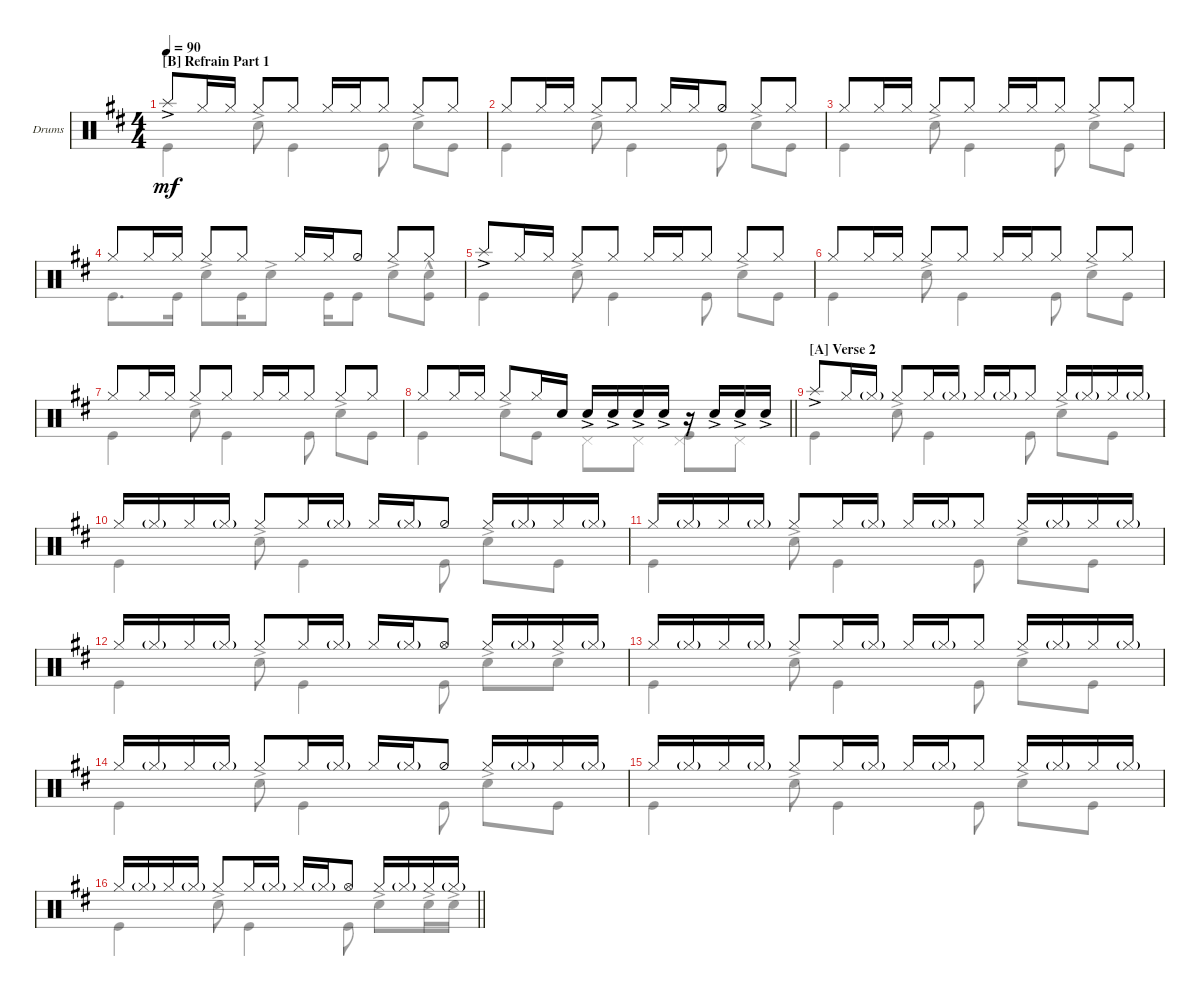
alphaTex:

\defaultSystemsLayout 4
\bracketExtendMode groupsimilarinstruments
\firstSystemTrackNameOrientation horizontal
\otherSystemsTrackNameOrientation horizontal
\track ("Drumkit" "Drums") {instrument percussion}
\staff {score}
\articulation defaults
\voice
\ts (4 4)
\section ("B" "Refrain Part 1")
\tempo 90
\clef neutral
\scale
0.5
\ks d "Splash (hit)"{ac}.8{dy mf} "Hi-Hat (closed)".16 "Hi-Hat (closed)".16 "Hi-Hat (closed)".8 "Hi-Hat (closed)".8 "Hi-Hat (closed)".16 "Hi-Hat (closed)".16 "Hi-Hat (closed)".8 "Hi-Hat (closed)".8 "Hi-Hat (closed)".8
|
\scale
0.5 "Hi-Hat (closed)".8 "Hi-Hat (closed)".16 "Hi-Hat (closed)".16 "Hi-Hat (closed)".8 "Hi-Hat (closed)".8 "Hi-Hat (closed)".16 "Hi-Hat (closed)".16 "Hi-Hat (half)".8 "Hi-Hat (closed)".8 "Hi-Hat (closed)".8 |
\scale
0.5 "Hi-Hat (closed)".8 "Hi-Hat (closed)".16 "Hi-Hat (closed)".16 "Hi-Hat (closed)".8 "Hi-Hat (closed)".8 "Hi-Hat (closed)".16 "Hi-Hat (closed)".16 "Hi-Hat (closed)".8 "Hi-Hat (closed)".8 "Hi-Hat (closed)".8 |
\scale
0.5 "Hi-Hat (closed)".8 "Hi-Hat (closed)".16 "Hi-Hat (closed)".16 "Hi-Hat (closed)".8 "Hi-Hat (closed)".8 "Hi-Hat (closed)".16 "Hi-Hat (closed)".16 "Hi-Hat (half)".8 "Hi-Hat (closed)".8 "Hi-Hat (closed)".8 |
\scale
0.5 "Splash (hit)"{ac}.8 "Hi-Hat (closed)".16 "Hi-Hat (closed)".16 "Hi-Hat (closed)".8 "Hi-Hat (closed)".8 "Hi-Hat (closed)".16 "Hi-Hat (closed)".16 "Hi-Hat (closed)".8 "Hi-Hat (closed)".8 "Hi-Hat (closed)".8 |
\scale
0.5 "Hi-Hat (closed)".8 "Hi-Hat (closed)".16 "Hi-Hat (closed)".16 "Hi-Hat (closed)".8 "Hi-Hat (closed)".8 "Hi-Hat (closed)".16 "Hi-Hat (closed)".16 "Hi-Hat (closed)".8 "Hi-Hat (closed)".8 "Hi-Hat (closed)".8 |
\scale
0.5 "Hi-Hat (closed)".8 "Hi-Hat (closed)".16 "Hi-Hat (closed)".16 "Hi-Hat (closed)".8 "Hi-Hat (closed)".8 "Hi-Hat (closed)".16 "Hi-Hat (closed)".16 "Hi-Hat (closed)".8 "Hi-Hat (closed)".8 "Hi-Hat (closed)".8 |
\scale
0.5
\barLineRight lightlight "Hi-Hat (closed)".8 "Hi-Hat (closed)".16 "Hi-Hat (closed)".16 "Hi-Hat (closed)".8 "Hi-Hat (closed)".16 "Snare (hit) 2".16 "Snare (hit) 2"{ac}.16 "Snare (hit) 2"{ac}.16 "Snare (hit) 2"{ac}.16 "Snare (hit) 2"{ac}.16
r.16 "Snare (hit) 2"{ac}.16 "Snare (hit) 2"{ac}.16 "Snare (hit) 2"{ac}.16 |
\section ("A" "Verse 2")
\scale
0.5 "Splash (hit)"{ac}.8 "Hi-Hat (closed)".16 "Hi-Hat (closed)"{g}.16 "Hi-Hat (closed)".8 "Hi-Hat (closed)".16 "Hi-Hat (closed)"{g}.16 "Hi-Hat (closed)".16 "Hi-Hat (closed)"{g}.16 "Hi-Hat (closed)".8 "Hi-Hat (closed)".16 "Hi-Hat (closed)"{g}.16 "Hi-Hat (closed)".16 "Hi-Hat (closed)"{g}.16 |
\scale
0.5 "Hi-Hat (closed)".16 "Hi-Hat (closed)"{g}.16 "Hi-Hat (closed)".16 "Hi-Hat (closed)"{g}.16 "Hi-Hat (closed)".8 "Hi-Hat (closed)".16 "Hi-Hat (closed)"{g}.16 "Hi-Hat (closed)".16 "Hi-Hat (closed)"{g}.16 "Hi-Hat (half)".8 "Hi-Hat (closed)".16 "Hi-Hat (closed)"{g}.16 "Hi-Hat (closed)".16 "Hi-Hat (closed)"{g}.16 |
\scale
0.5 "Hi-Hat (closed)".16 "Hi-Hat (closed)"{g}.16 "Hi-Hat (closed)".16 "Hi-Hat (closed)"{g}.16 "Hi-Hat (closed)".8 "Hi-Hat (closed)".16 "Hi-Hat (closed)"{g}.16 "Hi-Hat (closed)".16 "Hi-Hat (closed)"{g}.16 "Hi-Hat (closed)".8 "Hi-Hat (closed)".16 "Hi-Hat (closed)"{g}.16 "Hi-Hat (closed)".16 "Hi-Hat (closed)"{g}.16 |
\scale
0.5 "Hi-Hat (closed)".16 "Hi-Hat (closed)"{g}.16 "Hi-Hat (closed)".16 "Hi-Hat (closed)"{g}.16 "Hi-Hat (closed)".8 "Hi-Hat (closed)".16 "Hi-Hat (closed)"{g}.16 "Hi-Hat (closed)".16 "Hi-Hat (closed)"{g}.16 "Hi-Hat (open)".8 "Hi-Hat (closed)".16 "Hi-Hat (closed)"{g}.16 "Hi-Hat (closed)".16 "Hi-Hat (closed)"{g}.16 |
\scale
0.5 "Hi-Hat (closed)".16 "Hi-Hat (closed)"{g}.16 "Hi-Hat (closed)".16 "Hi-Hat (closed)"{g}.16 "Hi-Hat (closed)".8 "Hi-Hat (closed)".16 "Hi-Hat (closed)"{g}.16 "Hi-Hat (closed)".16 "Hi-Hat (closed)"{g}.16 "Hi-Hat (closed)".8 "Hi-Hat (closed)".16 "Hi-Hat (closed)"{g}.16 "Hi-Hat (closed)".16 "Hi-Hat (closed)"{g}.16 |
\scale
0.5 "Hi-Hat (closed)".16 "Hi-Hat (closed)"{g}.16 "Hi-Hat (closed)".16 "Hi-Hat (closed)"{g}.16 "Hi-Hat (closed)".8 "Hi-Hat (closed)".16 "Hi-Hat (closed)"{g}.16 "Hi-Hat (closed)".16 "Hi-Hat (closed)"{g}.16 "Hi-Hat (half)".8 "Hi-Hat (closed)".16 "Hi-Hat (closed)"{g}.16 "Hi-Hat (closed)".16 "Hi-Hat (closed)"{g}.16 |
\scale
0.5 "Hi-Hat (closed)".16 "Hi-Hat (closed)"{g}.16 "Hi-Hat (closed)".16 "Hi-Hat (closed)"{g}.16 "Hi-Hat (closed)".8 "Hi-Hat (closed)".16 "Hi-Hat (closed)"{g}.16 "Hi-Hat (closed)".16 "Hi-Hat (closed)"{g}.16 "Hi-Hat (closed)".8 "Hi-Hat (closed)".16 "Hi-Hat (closed)"{g}.16 "Hi-Hat (closed)".16 "Hi-Hat (closed)"{g}.16 |
\scale
0.5
\barLineRight lightlight "Hi-Hat (closed)".16 "Hi-Hat (closed)"{g}.16 "Hi-Hat (closed)".16 "Hi-Hat (closed)"{g}.16 "Hi-Hat (closed)".8 "Hi-Hat (closed)".16 "Hi-Hat (closed)"{g}.16 "Hi-Hat (closed)".16 "Hi-Hat (closed)"{g}.16 "Hi-Hat (open)".8 "Hi-Hat (closed)".16 "Hi-Hat (closed)"{g}.16 "Hi-Hat (closed)".16 "Hi-Hat (closed)"{g}.16
\voice
\clef neutral
\ottava regular
\simile none
\scale
0.5
\ks d "Kick (hit)".4{dy mf} "Snare (hit) 2"{ac}.8 "Kick (hit)".4 "Kick (hit)".8 "Snare (hit) 2"{ac}.8 "Kick (hit)".8
|
\scale
0.5 "Kick (hit)".4 "Snare (hit) 2"{ac}.8 "Kick (hit)".4 "Kick (hit)".8 "Snare (hit) 2"{ac}.8 "Kick (hit)".8 |
\scale
0.5 "Kick (hit)".4 "Snare (hit) 2"{ac}.8 "Kick (hit)".4 "Kick (hit)".8 "Snare (hit) 2"{ac}.8 "Kick (hit)".8 |
\scale
0.5 "Kick (hit)".8{d} "Kick (hit)".16 "Snare (hit) 2"{ac}.8 "Kick (hit)".16 "Snare (hit) 2"{ac}.8 "Kick (hit)".16 "Kick (hit)".8 "Snare (hit) 2"{ac}.8 ("Kick (hit)" "Snare (hit) 2"{hac}).8 |
\scale
0.5 "Kick (hit)".4 "Snare (hit) 2"{ac}.8 "Kick (hit)".4 "Kick (hit)".8 "Snare (hit) 2"{ac}.8 "Kick (hit)".8 |
\scale
0.5 "Kick (hit)".4 "Snare (hit) 2"{ac}.8 "Kick (hit)".4 "Kick (hit)".8 "Snare (hit) 2"{ac}.8 "Kick (hit)".8 |
\scale
0.5 "Kick (hit)".4 "Snare (hit) 2"{ac}.8 "Kick (hit)".4 "Kick (hit)".8 "Snare (hit) 2"{ac}.8 "Kick (hit)".8 |
\scale
0.5
\barLineRight lightlight "Kick (hit)".4 "Snare (hit) 2"{ac}.8 "Kick (hit)".8 "Pedal Hi-Hat (hit)".8 "Pedal Hi-Hat (hit)".8
("Kick (hit)" "Pedal Hi-Hat (hit)").8 "Pedal Hi-Hat (hit)".8 |
\scale
0.5 "Kick (hit)".4 "Snare (hit) 2"{ac}.8 "Kick (hit)".4 "Kick (hit)".8 "Snare (hit) 2"{ac}.8 "Kick (hit)".8 |
\scale
0.5 "Kick (hit)".4 "Snare (hit) 2"{ac}.8 "Kick (hit)".4 "Kick (hit)".8 "Snare (hit) 2"{ac}.8 "Kick (hit)".8 |
\scale
0.5 "Kick (hit)".4 "Snare (hit) 2"{ac}.8 "Kick (hit)".4 "Kick (hit)".8 "Snare (hit) 2"{ac}.8 "Kick (hit)".8 |
\scale
0.5 "Kick (hit)".4 "Snare (hit) 2"{ac}.8 "Kick (hit)".4 "Kick (hit)".8 "Snare (hit) 2"{ac}.8 "Snare (hit) 2"{ac}.8 |
\scale
0.5 "Kick (hit)".4 "Snare (hit) 2"{ac}.8 "Kick (hit)".4 "Kick (hit)".8 "Snare (hit) 2"{ac}.8 "Kick (hit)".8 |
\scale
0.5 "Kick (hit)".4 "Snare (hit) 2"{ac}.8 "Kick (hit)".4 "Kick (hit)".8 "Snare (hit) 2"{ac}.8 "Kick (hit)".8 |
\scale
0.5 "Kick (hit)".4 "Snare (hit) 2"{ac}.8 "Kick (hit)".4 "Kick (hit)".8 "Snare (hit) 2"{ac}.8 "Kick (hit)".8 |
\scale
0.5
\barLineRight lightlight "Kick (hit)".4 "Snare (hit) 2"{ac}.8 "Kick (hit)".4 "Kick (hit)".8 "Snare (hit) 2"{ac}.8 "Snare (hit) 2"{ac}.16 "Snare (hit) 2"{ac}.16
